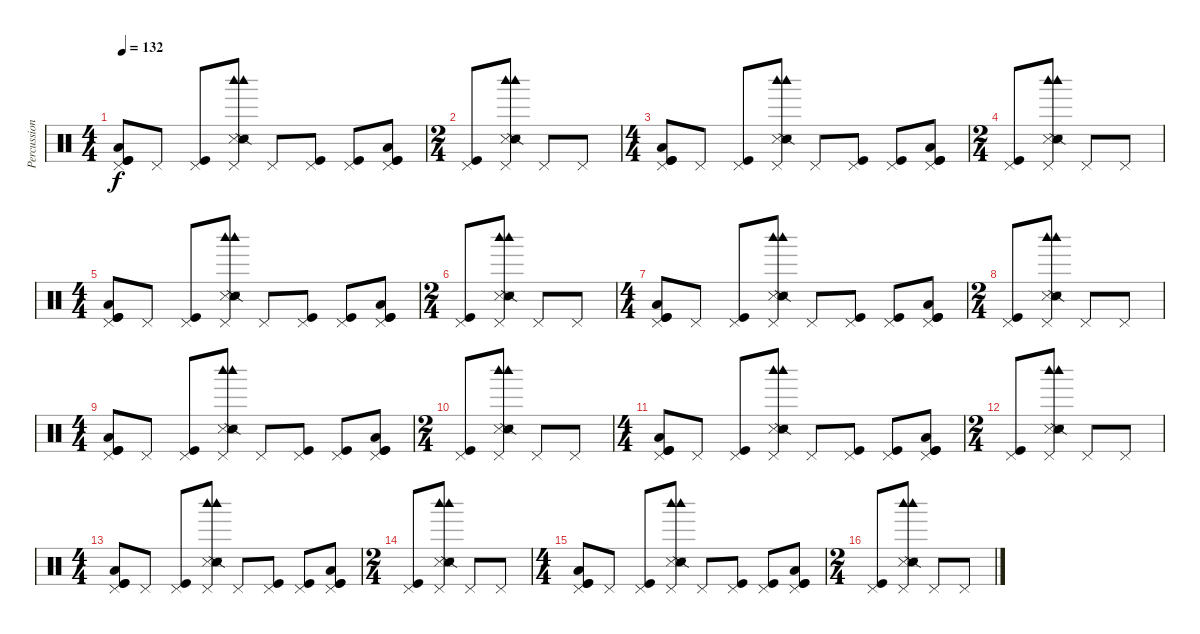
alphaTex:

\track ("Percussions" "Percussion") {instrument percussion}
\staff {score}
\articulation defaults
\ts (4 4)
\tempo 132
\clef neutral
\ks c
("Pedal Hi-Hat (hit)" "Low Floor Tom (hit)" "Kick (hit)" "Kick (hit)").8{dy f} "Pedal Hi-Hat (hit)".8 ("Pedal Hi-Hat (hit)" "Kick (hit)").8 ("Pedal Hi-Hat (hit)" "Woodblock high (hit)" "Metronome (hit)" "Snare (side stick) 3" "Snare (side stick) 2" "Woodblock high (hit)").8 "Pedal Hi-Hat (hit)".8 ("Pedal Hi-Hat (hit)" "Kick (hit)").8 ("Pedal Hi-Hat (hit)" "Kick (hit)").8 ("Pedal Hi-Hat (hit)" "Low Floor Tom (hit)" "Kick (hit)" "Kick (hit)").8 |
\ts (2 4)
("Pedal Hi-Hat (hit)" "Kick (hit)").8 ("Pedal Hi-Hat (hit)" "Woodblock high (hit)" "Metronome (hit)" "Snare (side stick) 3" "Snare (side stick) 2" "Woodblock high (hit)").8 "Pedal Hi-Hat (hit)".8 "Pedal Hi-Hat (hit)".8 |
\ts (4 4)
("Pedal Hi-Hat (hit)" "Low Floor Tom (hit)" "Kick (hit)" "Kick (hit)").8 "Pedal Hi-Hat (hit)".8 ("Pedal Hi-Hat (hit)" "Kick (hit)").8 ("Pedal Hi-Hat (hit)" "Woodblock high (hit)" "Metronome (hit)" "Snare (side stick) 3" "Snare (side stick) 2" "Woodblock high (hit)").8 "Pedal Hi-Hat (hit)".8 ("Pedal Hi-Hat (hit)" "Kick (hit)").8 ("Pedal Hi-Hat (hit)" "Kick (hit)").8 ("Pedal Hi-Hat (hit)" "Low Floor Tom (hit)" "Kick (hit)" "Kick (hit)").8 |
\ts (2 4)
("Pedal Hi-Hat (hit)" "Kick (hit)").8 ("Pedal Hi-Hat (hit)" "Woodblock high (hit)" "Metronome (hit)" "Snare (side stick) 3" "Snare (side stick) 2" "Woodblock high (hit)").8 "Pedal Hi-Hat (hit)".8 "Pedal Hi-Hat (hit)".8 |
\ts (4 4)
("Pedal Hi-Hat (hit)" "Low Floor Tom (hit)" "Kick (hit)" "Kick (hit)").8 "Pedal Hi-Hat (hit)".8 ("Pedal Hi-Hat (hit)" "Kick (hit)").8 ("Pedal Hi-Hat (hit)" "Woodblock high (hit)" "Metronome (hit)" "Snare (side stick) 3" "Snare (side stick) 2" "Woodblock high (hit)").8 "Pedal Hi-Hat (hit)".8 ("Pedal Hi-Hat (hit)" "Kick (hit)").8 ("Pedal Hi-Hat (hit)" "Kick (hit)").8 ("Pedal Hi-Hat (hit)" "Low Floor Tom (hit)" "Kick (hit)" "Kick (hit)").8 |
\ts (2 4)
("Pedal Hi-Hat (hit)" "Kick (hit)").8 ("Pedal Hi-Hat (hit)" "Woodblock high (hit)" "Metronome (hit)" "Snare (side stick) 3" "Snare (side stick) 2" "Woodblock high (hit)").8 "Pedal Hi-Hat (hit)".8 "Pedal Hi-Hat (hit)".8 |
\ts (4 4)
("Pedal Hi-Hat (hit)" "Low Floor Tom (hit)" "Kick (hit)" "Kick (hit)").8 "Pedal Hi-Hat (hit)".8 ("Pedal Hi-Hat (hit)" "Kick (hit)").8 ("Pedal Hi-Hat (hit)" "Woodblock high (hit)" "Metronome (hit)" "Snare (side stick) 3" "Snare (side stick) 2" "Woodblock high (hit)").8 "Pedal Hi-Hat (hit)".8 ("Pedal Hi-Hat (hit)" "Kick (hit)").8 ("Pedal Hi-Hat (hit)" "Kick (hit)").8 ("Pedal Hi-Hat (hit)" "Low Floor Tom (hit)" "Kick (hit)" "Kick (hit)").8 |
\ts (2 4)
("Pedal Hi-Hat (hit)" "Kick (hit)").8 ("Pedal Hi-Hat (hit)" "Woodblock high (hit)" "Metronome (hit)" "Snare (side stick) 3" "Snare (side stick) 2" "Woodblock high (hit)").8 "Pedal Hi-Hat (hit)".8 "Pedal Hi-Hat (hit)".8 |
\ts (4 4)
("Pedal Hi-Hat (hit)" "Low Floor Tom (hit)" "Kick (hit)" "Kick (hit)").8 "Pedal Hi-Hat (hit)".8 ("Pedal Hi-Hat (hit)" "Kick (hit)").8 ("Pedal Hi-Hat (hit)" "Woodblock high (hit)" "Metronome (hit)" "Snare (side stick) 3" "Snare (side stick) 2" "Woodblock high (hit)").8 "Pedal Hi-Hat (hit)".8 ("Pedal Hi-Hat (hit)" "Kick (hit)").8 ("Pedal Hi-Hat (hit)" "Kick (hit)").8 ("Pedal Hi-Hat (hit)" "Low Floor Tom (hit)" "Kick (hit)" "Kick (hit)").8 |
\ts (2 4)
("Pedal Hi-Hat (hit)" "Kick (hit)").8 ("Pedal Hi-Hat (hit)" "Woodblock high (hit)" "Metronome (hit)" "Snare (side stick) 3" "Snare (side stick) 2" "Woodblock high (hit)").8 "Pedal Hi-Hat (hit)".8 "Pedal Hi-Hat (hit)".8 |
\ts (4 4)
("Pedal Hi-Hat (hit)" "Low Floor Tom (hit)" "Kick (hit)" "Kick (hit)").8 "Pedal Hi-Hat (hit)".8 ("Pedal Hi-Hat (hit)" "Kick (hit)").8 ("Pedal Hi-Hat (hit)" "Woodblock high (hit)" "Metronome (hit)" "Snare (side stick) 3" "Snare (side stick) 2" "Woodblock high (hit)").8 "Pedal Hi-Hat (hit)".8 ("Pedal Hi-Hat (hit)" "Kick (hit)").8 ("Pedal Hi-Hat (hit)" "Kick (hit)").8 ("Pedal Hi-Hat (hit)" "Low Floor Tom (hit)" "Kick (hit)" "Kick (hit)").8 |
\ts (2 4)
("Pedal Hi-Hat (hit)" "Kick (hit)").8 ("Pedal Hi-Hat (hit)" "Woodblock high (hit)" "Metronome (hit)" "Snare (side stick) 3" "Snare (side stick) 2" "Woodblock high (hit)").8 "Pedal Hi-Hat (hit)".8 "Pedal Hi-Hat (hit)".8 |
\ts (4 4)
("Pedal Hi-Hat (hit)" "Low Floor Tom (hit)" "Kick (hit)" "Kick (hit)").8 "Pedal Hi-Hat (hit)".8 ("Pedal Hi-Hat (hit)" "Kick (hit)").8 ("Pedal Hi-Hat (hit)" "Woodblock high (hit)" "Metronome (hit)" "Snare (side stick) 3" "Snare (side stick) 2" "Woodblock high (hit)").8 "Pedal Hi-Hat (hit)".8 ("Pedal Hi-Hat (hit)" "Kick (hit)").8 ("Pedal Hi-Hat (hit)" "Kick (hit)").8 ("Pedal Hi-Hat (hit)" "Low Floor Tom (hit)" "Kick (hit)" "Kick (hit)").8 |
\ts (2 4)
("Pedal Hi-Hat (hit)" "Kick (hit)").8 ("Pedal Hi-Hat (hit)" "Woodblock high (hit)" "Metronome (hit)" "Snare (side stick) 3" "Snare (side stick) 2" "Woodblock high (hit)").8 "Pedal Hi-Hat (hit)".8 "Pedal Hi-Hat (hit)".8 |
\ts (4 4)
("Pedal Hi-Hat (hit)" "Low Floor Tom (hit)" "Kick (hit)" "Kick (hit)").8 "Pedal Hi-Hat (hit)".8 ("Pedal Hi-Hat (hit)" "Kick (hit)").8 ("Pedal Hi-Hat (hit)" "Woodblock high (hit)" "Metronome (hit)" "Snare (side stick) 3" "Snare (side stick) 2" "Woodblock high (hit)").8 "Pedal Hi-Hat (hit)".8 ("Pedal Hi-Hat (hit)" "Kick (hit)").8 ("Pedal Hi-Hat (hit)" "Kick (hit)").8 ("Pedal Hi-Hat (hit)" "Low Floor Tom (hit)" "Kick (hit)" "Kick (hit)").8 |
\ts (2 4)
("Pedal Hi-Hat (hit)" "Kick (hit)").8 ("Pedal Hi-Hat (hit)" "Woodblock high (hit)" "Metronome (hit)" "Snare (side stick) 3" "Snare (side stick) 2" "Woodblock high (hit)").8 "Pedal Hi-Hat (hit)".8 "Pedal Hi-Hat (hit)".8
